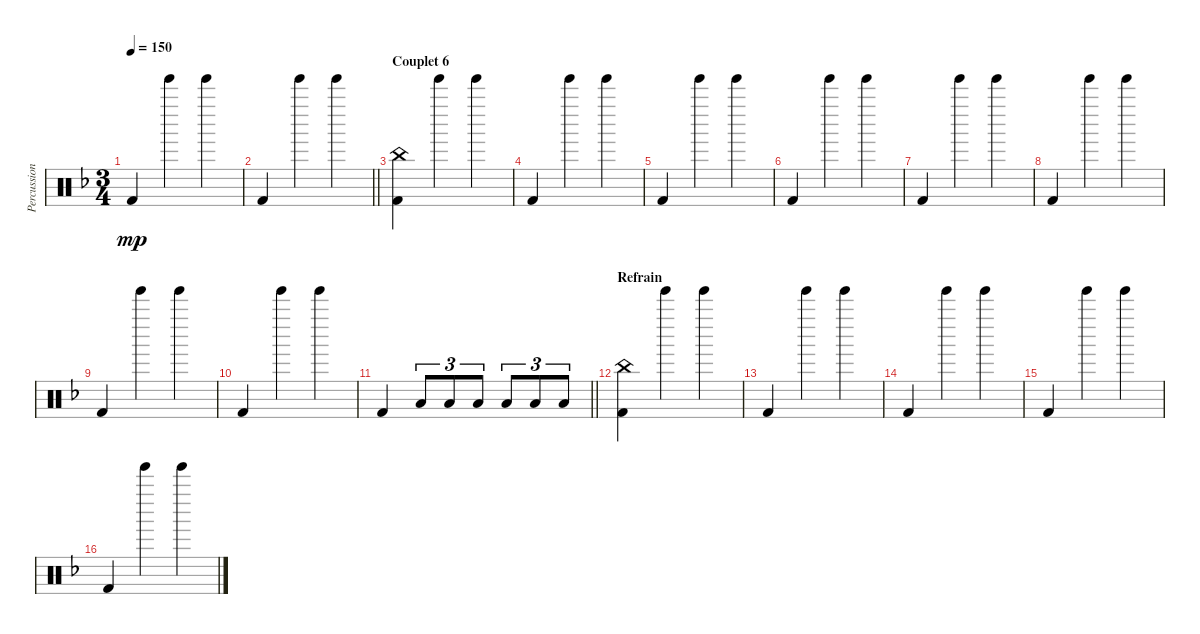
\track ("Percussions" "Percussion") {instrument percussion}
\staff {score}
\articulation defaults
\ts (3 4)
\tempo 150
\clef neutral
\ks f "Kick (hit) 2".4{dy mp} "Tinkle Bell (hit)".4 "Tinkle Bell (hit)".4
|
\barLineRight lightlight "Kick (hit) 2".4 "Tinkle Bell (hit)".4 "Tinkle Bell (hit)".4
|
\section ("" "Couplet 6")
("China (hit)" "Kick (hit) 2").4 "Tinkle Bell (hit)".4 "Tinkle Bell (hit)".4 |
"Kick (hit) 2".4 "Tinkle Bell (hit)".4 "Tinkle Bell (hit)".4 |
"Kick (hit) 2".4 "Tinkle Bell (hit)".4 "Tinkle Bell (hit)".4 |
"Kick (hit) 2".4 "Tinkle Bell (hit)".4 "Tinkle Bell (hit)".4 |
"Kick (hit) 2".4 "Tinkle Bell (hit)".4 "Tinkle Bell (hit)".4 |
"Kick (hit) 2".4 "Tinkle Bell (hit)".4 "Tinkle Bell (hit)".4 |
"Kick (hit) 2".4 "Tinkle Bell (hit)".4 "Tinkle Bell (hit)".4 |
"Kick (hit) 2".4 "Tinkle Bell (hit)".4 "Tinkle Bell (hit)".4 |
\barLineRight lightlight "Kick (hit) 2".4 "Low Tom (hit)".8{tu (3 2)} "Low Tom (hit)".8{tu (3 2)} "Low Tom (hit)".8{tu (3 2)} "Low Tom (hit)".8{tu (3 2)} "Low Tom (hit)".8{tu (3 2)} "Low Tom (hit)".8{tu (3 2)}
|
\section ("" "Refrain")
("China (hit)" "Kick (hit) 2").4 "Tinkle Bell (hit)".4 "Tinkle Bell (hit)".4 |
"Kick (hit) 2".4 "Tinkle Bell (hit)".4 "Tinkle Bell (hit)".4 |
"Kick (hit) 2".4 "Tinkle Bell (hit)".4 "Tinkle Bell (hit)".4 |
"Kick (hit) 2".4 "Tinkle Bell (hit)".4 "Tinkle Bell (hit)".4 |
"Kick (hit) 2".4 "Tinkle Bell (hit)".4 "Tinkle Bell (hit)".4
